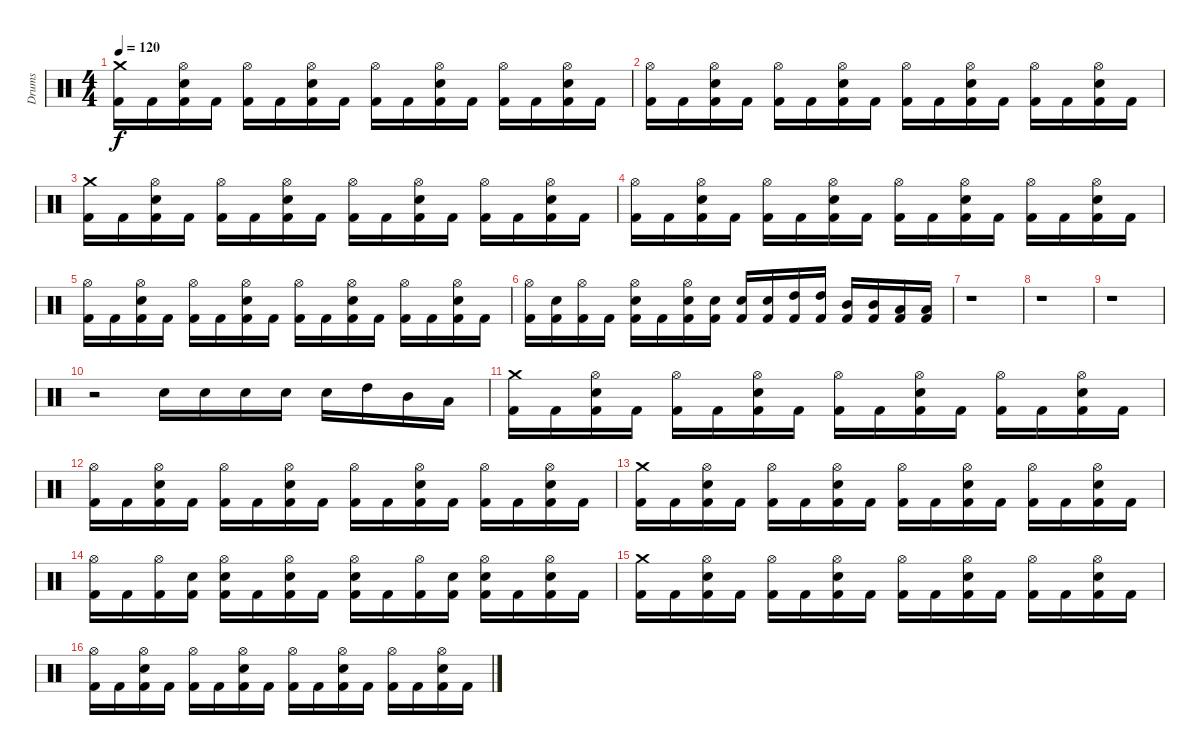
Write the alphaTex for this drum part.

\track ("Drums" "Drums") {instrument percussion}
\staff {score}
\articulation defaults
\ts (4 4)
\tempo 120
\clef neutral
\ks c
("Kick (hit) 2" "Crash medium (hit)").16{dy f} "Kick (hit) 2".16 ("Kick (hit) 2" "Electric Snare (hit)" "Hi-Hat (open)").16 "Kick (hit) 2".16 ("Kick (hit) 2" "Hi-Hat (open)").16 "Kick (hit) 2".16 ("Kick (hit) 2" "Electric Snare (hit)" "Hi-Hat (open)").16 "Kick (hit) 2".16 ("Kick (hit) 2" "Hi-Hat (open)").16 "Kick (hit) 2".16 ("Kick (hit) 2" "Electric Snare (hit)" "Hi-Hat (open)").16 "Kick (hit) 2".16 ("Kick (hit) 2" "Hi-Hat (open)").16 "Kick (hit) 2".16 ("Kick (hit) 2" "Electric Snare (hit)" "Hi-Hat (open)").16 "Kick (hit) 2".16 |
("Kick (hit) 2" "Hi-Hat (open)").16 "Kick (hit) 2".16 ("Kick (hit) 2" "Electric Snare (hit)" "Hi-Hat (open)").16 "Kick (hit) 2".16 ("Kick (hit) 2" "Hi-Hat (open)").16 "Kick (hit) 2".16 ("Kick (hit) 2" "Electric Snare (hit)" "Hi-Hat (open)").16 "Kick (hit) 2".16 ("Kick (hit) 2" "Hi-Hat (open)").16 "Kick (hit) 2".16 ("Kick (hit) 2" "Electric Snare (hit)" "Hi-Hat (open)").16 "Kick (hit) 2".16 ("Kick (hit) 2" "Hi-Hat (open)").16 "Kick (hit) 2".16 ("Kick (hit) 2" "Electric Snare (hit)" "Hi-Hat (open)").16 "Kick (hit) 2".16 |
("Kick (hit) 2" "Crash medium (hit)").16 "Kick (hit) 2".16 ("Kick (hit) 2" "Electric Snare (hit)" "Hi-Hat (open)").16 "Kick (hit) 2".16 ("Kick (hit) 2" "Hi-Hat (open)").16 "Kick (hit) 2".16 ("Kick (hit) 2" "Electric Snare (hit)" "Hi-Hat (open)").16 "Kick (hit) 2".16 ("Kick (hit) 2" "Hi-Hat (open)").16 "Kick (hit) 2".16 ("Kick (hit) 2" "Electric Snare (hit)" "Hi-Hat (open)").16 "Kick (hit) 2".16 ("Kick (hit) 2" "Hi-Hat (open)").16 "Kick (hit) 2".16 ("Kick (hit) 2" "Electric Snare (hit)" "Hi-Hat (open)").16 "Kick (hit) 2".16 |
("Kick (hit) 2" "Hi-Hat (open)").16 "Kick (hit) 2".16 ("Kick (hit) 2" "Electric Snare (hit)" "Hi-Hat (open)").16 "Kick (hit) 2".16 ("Kick (hit) 2" "Hi-Hat (open)").16 "Kick (hit) 2".16 ("Kick (hit) 2" "Electric Snare (hit)" "Hi-Hat (open)").16 "Kick (hit) 2".16 ("Kick (hit) 2" "Hi-Hat (open)").16 "Kick (hit) 2".16 ("Kick (hit) 2" "Electric Snare (hit)" "Hi-Hat (open)").16 "Kick (hit) 2".16 ("Kick (hit) 2" "Hi-Hat (open)").16 "Kick (hit) 2".16 ("Kick (hit) 2" "Electric Snare (hit)" "Hi-Hat (open)").16 "Kick (hit) 2".16 |
("Kick (hit) 2" "Hi-Hat (open)").16 "Kick (hit) 2".16 ("Kick (hit) 2" "Electric Snare (hit)" "Hi-Hat (open)").16 "Kick (hit) 2".16 ("Kick (hit) 2" "Hi-Hat (open)").16 "Kick (hit) 2".16 ("Kick (hit) 2" "Electric Snare (hit)" "Hi-Hat (open)").16 "Kick (hit) 2".16 ("Kick (hit) 2" "Hi-Hat (open)").16 "Kick (hit) 2".16 ("Kick (hit) 2" "Electric Snare (hit)" "Hi-Hat (open)").16 "Kick (hit) 2".16 ("Kick (hit) 2" "Hi-Hat (open)").16 "Kick (hit) 2".16 ("Kick (hit) 2" "Electric Snare (hit)" "Hi-Hat (open)").16 "Kick (hit) 2".16 |
("Kick (hit) 2" "Hi-Hat (open)").16 ("Kick (hit) 2" "Electric Snare (hit)").16 ("Kick (hit) 2" "Hi-Hat (open)").16 "Kick (hit) 2".16 ("Kick (hit) 2" "Electric Snare (hit)" "Hi-Hat (open)").16 "Kick (hit) 2".16 ("Kick (hit) 2" "Electric Snare (hit)" "Hi-Hat (open)").16 ("Kick (hit) 2" "Electric Snare (hit)").16 ("Kick (hit) 2" "Electric Snare (hit)").16 ("Kick (hit) 2" "Electric Snare (hit)").16 ("Kick (hit) 2" "High Tom (hit)").16 ("Kick (hit) 2" "High Tom (hit)").16 ("Kick (hit) 2" "Mid Tom (hit)").16 ("Kick (hit) 2" "Mid Tom (hit)").16 ("Kick (hit) 2" "Low Tom (hit)").16 ("Kick (hit) 2" "Low Tom (hit)").16 |
r.1 |
r.1 |
r.1 |
r.2 "Electric Snare (hit)".16 "Electric Snare (hit)".16 "Electric Snare (hit)".16 "Electric Snare (hit)".16 "Electric Snare (hit)".16 "High Tom (hit)".16 "Mid Tom (hit)".16 "Low Tom (hit)".16 |
("Kick (hit) 2" "Crash medium (hit)").16 "Kick (hit) 2".16 ("Kick (hit) 2" "Electric Snare (hit)" "Hi-Hat (open)").16 "Kick (hit) 2".16 ("Kick (hit) 2" "Hi-Hat (open)").16 "Kick (hit) 2".16 ("Kick (hit) 2" "Electric Snare (hit)" "Hi-Hat (open)").16 "Kick (hit) 2".16 ("Kick (hit) 2" "Hi-Hat (open)").16 "Kick (hit) 2".16 ("Kick (hit) 2" "Electric Snare (hit)" "Hi-Hat (open)").16 "Kick (hit) 2".16 ("Kick (hit) 2" "Hi-Hat (open)").16 "Kick (hit) 2".16 ("Kick (hit) 2" "Electric Snare (hit)" "Hi-Hat (open)").16 "Kick (hit) 2".16 |
("Kick (hit) 2" "Hi-Hat (open)").16 "Kick (hit) 2".16 ("Kick (hit) 2" "Electric Snare (hit)" "Hi-Hat (open)").16 "Kick (hit) 2".16 ("Kick (hit) 2" "Hi-Hat (open)").16 "Kick (hit) 2".16 ("Kick (hit) 2" "Electric Snare (hit)" "Hi-Hat (open)").16 "Kick (hit) 2".16 ("Kick (hit) 2" "Hi-Hat (open)").16 "Kick (hit) 2".16 ("Kick (hit) 2" "Electric Snare (hit)" "Hi-Hat (open)").16 "Kick (hit) 2".16 ("Kick (hit) 2" "Hi-Hat (open)").16 "Kick (hit) 2".16 ("Kick (hit) 2" "Electric Snare (hit)" "Hi-Hat (open)").16 "Kick (hit) 2".16 |
("Kick (hit) 2" "Crash medium (hit)").16 "Kick (hit) 2".16 ("Kick (hit) 2" "Electric Snare (hit)" "Hi-Hat (open)").16 "Kick (hit) 2".16 ("Kick (hit) 2" "Hi-Hat (open)").16 "Kick (hit) 2".16 ("Kick (hit) 2" "Electric Snare (hit)" "Hi-Hat (open)").16 "Kick (hit) 2".16 ("Kick (hit) 2" "Hi-Hat (open)").16 "Kick (hit) 2".16 ("Kick (hit) 2" "Electric Snare (hit)" "Hi-Hat (open)").16 "Kick (hit) 2".16 ("Kick (hit) 2" "Hi-Hat (open)").16 "Kick (hit) 2".16 ("Kick (hit) 2" "Electric Snare (hit)" "Hi-Hat (open)").16 "Kick (hit) 2".16 |
("Kick (hit) 2" "Hi-Hat (open)").16 "Kick (hit) 2".16 ("Kick (hit) 2" "Hi-Hat (open)").16 ("Kick (hit) 2" "Electric Snare (hit)").16 ("Kick (hit) 2" "Electric Snare (hit)" "Hi-Hat (open)").16 "Kick (hit) 2".16 ("Kick (hit) 2" "Electric Snare (hit)" "Hi-Hat (open)").16 "Kick (hit) 2".16 ("Kick (hit) 2" "Electric Snare (hit)" "Hi-Hat (open)").16 "Kick (hit) 2".16 ("Kick (hit) 2" "Hi-Hat (open)").16 ("Kick (hit) 2" "Electric Snare (hit)").16 ("Kick (hit) 2" "Electric Snare (hit)" "Hi-Hat (open)").16 "Kick (hit) 2".16 ("Kick (hit) 2" "Electric Snare (hit)" "Hi-Hat (open)").16 "Kick (hit) 2".16 |
("Kick (hit) 2" "Crash medium (hit)").16 "Kick (hit) 2".16 ("Kick (hit) 2" "Electric Snare (hit)" "Hi-Hat (open)").16 "Kick (hit) 2".16 ("Kick (hit) 2" "Hi-Hat (open)").16 "Kick (hit) 2".16 ("Kick (hit) 2" "Electric Snare (hit)" "Hi-Hat (open)").16 "Kick (hit) 2".16 ("Kick (hit) 2" "Hi-Hat (open)").16 "Kick (hit) 2".16 ("Kick (hit) 2" "Electric Snare (hit)" "Hi-Hat (open)").16 "Kick (hit) 2".16 ("Kick (hit) 2" "Hi-Hat (open)").16 "Kick (hit) 2".16 ("Kick (hit) 2" "Electric Snare (hit)" "Hi-Hat (open)").16 "Kick (hit) 2".16 |
("Kick (hit) 2" "Hi-Hat (open)").16 "Kick (hit) 2".16 ("Kick (hit) 2" "Electric Snare (hit)" "Hi-Hat (open)").16 "Kick (hit) 2".16 ("Kick (hit) 2" "Hi-Hat (open)").16 "Kick (hit) 2".16 ("Kick (hit) 2" "Electric Snare (hit)" "Hi-Hat (open)").16 "Kick (hit) 2".16 ("Kick (hit) 2" "Hi-Hat (open)").16 "Kick (hit) 2".16 ("Kick (hit) 2" "Electric Snare (hit)" "Hi-Hat (open)").16 "Kick (hit) 2".16 ("Kick (hit) 2" "Hi-Hat (open)").16 "Kick (hit) 2".16 ("Kick (hit) 2" "Electric Snare (hit)" "Hi-Hat (open)").16 "Kick (hit) 2".16
